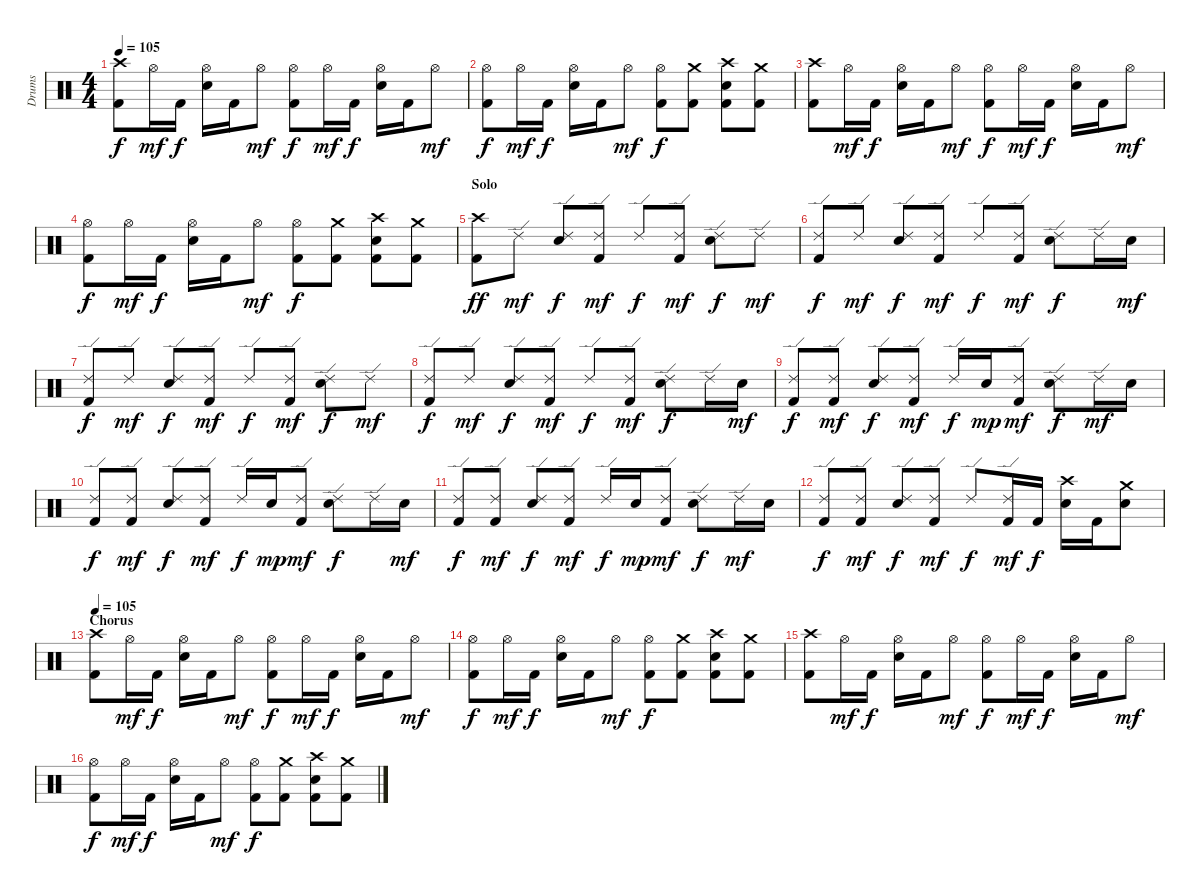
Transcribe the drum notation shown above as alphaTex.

\track ("Drums" "Drums") {instrument percussion}
\staff {score}
\articulation defaults
\ts (4 4)
\tempo 105
\clef neutral
\ks c
("Crash high (hit)" "Kick (hit) 2").8{dy f} "Hi-Hat (open)".16{dy mf} "Kick (hit) 2".16{dy f} ("Hi-Hat (open)" "Snare (hit) 2").16 "Kick (hit) 2".16 "Hi-Hat (open)".8{dy mf} ("Hi-Hat (open)" "Kick (hit) 2").8{dy f} "Hi-Hat (open)".16{dy mf} "Kick (hit) 2".16{dy f} ("Hi-Hat (open)" "Snare (hit) 2").16 "Kick (hit) 2".16 "Hi-Hat (open)".8{dy mf} |
("Hi-Hat (open)" "Kick (hit) 2").8{dy f} "Hi-Hat (open)".16{dy mf} "Kick (hit) 2".16{dy f} ("Hi-Hat (open)" "Snare (hit) 2").16 "Kick (hit) 2".16 "Hi-Hat (open)".8{dy mf} ("Hi-Hat (open)" "Kick (hit) 2").8{dy f} ("Crash medium (hit)" "Kick (hit) 2").8 ("Crash high (hit)" "Snare (hit) 2" "Kick (hit) 2").8 ("Crash medium (hit)" "Kick (hit) 2").8 |
("Crash high (hit)" "Kick (hit) 2").8 "Hi-Hat (open)".16{dy mf} "Kick (hit) 2".16{dy f} ("Hi-Hat (open)" "Snare (hit) 2").16 "Kick (hit) 2".16 "Hi-Hat (open)".8{dy mf} ("Hi-Hat (open)" "Kick (hit) 2").8{dy f} "Hi-Hat (open)".16{dy mf} "Kick (hit) 2".16{dy f} ("Hi-Hat (open)" "Snare (hit) 2").16 "Kick (hit) 2".16 "Hi-Hat (open)".8{dy mf} |
("Hi-Hat (open)" "Kick (hit) 2").8{dy f} "Hi-Hat (open)".16{dy mf} "Kick (hit) 2".16{dy f} ("Hi-Hat (open)" "Snare (hit) 2").16 "Kick (hit) 2".16 "Hi-Hat (open)".8{dy mf} ("Hi-Hat (open)" "Kick (hit) 2").8{dy f} ("Crash medium (hit)" "Kick (hit) 2").8 ("Crash high (hit)" "Snare (hit) 2" "Kick (hit) 2").8 ("Crash medium (hit)" "Kick (hit) 2").8 |
\section ("" "Solo")
("Crash high (hit)" "Kick (hit) 2").8{dy ff volume 11} "Ride (edge) 2".8{dy mf} ("Ride (edge) 2" "Snare (hit) 2").8{dy f} ("Ride (edge) 2" "Kick (hit) 2").8{dy mf} "Ride (edge) 2".8{dy f} ("Ride (edge) 2" "Kick (hit) 2").8{dy mf} ("Ride (edge) 2" "Snare (hit) 2").8{dy f} "Ride (edge) 2".8{dy mf} |
("Ride (edge) 2" "Kick (hit) 2").8{dy f} "Ride (edge) 2".8{dy mf} ("Ride (edge) 2" "Snare (hit) 2").8{dy f} ("Ride (edge) 2" "Kick (hit) 2").8{dy mf} "Ride (edge) 2".8{dy f} ("Ride (edge) 2" "Kick (hit) 2").8{dy mf} ("Ride (edge) 2" "Snare (hit) 2").8{dy f} "Ride (edge) 2".16 "Snare (hit) 2".16{dy mf} |
("Ride (edge) 2" "Kick (hit) 2").8{dy f} "Ride (edge) 2".8{dy mf} ("Ride (edge) 2" "Snare (hit) 2").8{dy f} ("Ride (edge) 2" "Kick (hit) 2").8{dy mf} "Ride (edge) 2".8{dy f} ("Ride (edge) 2" "Kick (hit) 2").8{dy mf} ("Ride (edge) 2" "Snare (hit) 2").8{dy f} "Ride (edge) 2".8{dy mf} |
("Ride (edge) 2" "Kick (hit) 2").8{dy f} "Ride (edge) 2".8{dy mf} ("Ride (edge) 2" "Snare (hit) 2").8{dy f} ("Ride (edge) 2" "Kick (hit) 2").8{dy mf} "Ride (edge) 2".8{dy f} ("Ride (edge) 2" "Kick (hit) 2").8{dy mf} ("Ride (edge) 2" "Snare (hit) 2").8{dy f} "Ride (edge) 2".16 "Snare (hit) 2".16{dy mf} |
("Ride (edge) 2" "Kick (hit) 2").8{dy f} ("Ride (edge) 2" "Kick (hit) 2").8{dy mf} ("Ride (edge) 2" "Snare (hit) 2").8{dy f} ("Ride (edge) 2" "Kick (hit) 2").8{dy mf} "Ride (edge) 2".16{dy f} "Snare (hit) 2".16{dy mp} ("Ride (edge) 2" "Kick (hit) 2").8{dy mf} ("Ride (edge) 2" "Snare (hit) 2").8{dy f} "Ride (edge) 2".16{dy mf} "Snare (hit) 2".16 |
("Ride (edge) 2" "Kick (hit) 2").8{dy f} ("Ride (edge) 2" "Kick (hit) 2").8{dy mf} ("Ride (edge) 2" "Snare (hit) 2").8{dy f} ("Ride (edge) 2" "Kick (hit) 2").8{dy mf} "Ride (edge) 2".16{dy f} "Snare (hit) 2".16{dy mp} ("Ride (edge) 2" "Kick (hit) 2").8{dy mf} ("Ride (edge) 2" "Snare (hit) 2").8{dy f} "Ride (edge) 2".16 "Snare (hit) 2".16{dy mf} |
("Ride (edge) 2" "Kick (hit) 2").8{dy f} ("Ride (edge) 2" "Kick (hit) 2").8{dy mf} ("Ride (edge) 2" "Snare (hit) 2").8{dy f} ("Ride (edge) 2" "Kick (hit) 2").8{dy mf} "Ride (edge) 2".16{dy f} "Snare (hit) 2".16{dy mp} ("Ride (edge) 2" "Kick (hit) 2").8{dy mf} ("Ride (edge) 2" "Snare (hit) 2").8{dy f} "Ride (edge) 2".16{dy mf} "Snare (hit) 2".16 |
("Ride (edge) 2" "Kick (hit) 2").8{dy f} ("Ride (edge) 2" "Kick (hit) 2").8{dy mf} ("Ride (edge) 2" "Snare (hit) 2").8{dy f} ("Ride (edge) 2" "Kick (hit) 2").8{dy mf} "Ride (edge) 2".8{dy f} ("Ride (edge) 2" "Kick (hit) 2").16{dy mf} "Kick (hit) 2".16{dy f} ("Crash high (hit)" "Snare (hit) 2").16 "Kick (hit) 2".16 ("Crash medium (hit)" "Snare (hit) 2").8 |
\section ("" "Chorus")
\tempo 105
("Crash high (hit)" "Kick (hit) 2").8 "Hi-Hat (open)".16{dy mf} "Kick (hit) 2".16{dy f} ("Hi-Hat (open)" "Snare (hit) 2").16 "Kick (hit) 2".16 "Hi-Hat (open)".8{dy mf} ("Hi-Hat (open)" "Kick (hit) 2").8{dy f} "Hi-Hat (open)".16{dy mf} "Kick (hit) 2".16{dy f} ("Hi-Hat (open)" "Snare (hit) 2").16 "Kick (hit) 2".16 "Hi-Hat (open)".8{dy mf} |
("Hi-Hat (open)" "Kick (hit) 2").8{dy f} "Hi-Hat (open)".16{dy mf} "Kick (hit) 2".16{dy f} ("Hi-Hat (open)" "Snare (hit) 2").16 "Kick (hit) 2".16 "Hi-Hat (open)".8{dy mf} ("Hi-Hat (open)" "Kick (hit) 2").8{dy f} ("Crash medium (hit)" "Kick (hit) 2").8 ("Crash high (hit)" "Snare (hit) 2" "Kick (hit) 2").8 ("Crash medium (hit)" "Kick (hit) 2").8 |
("Crash high (hit)" "Kick (hit) 2").8 "Hi-Hat (open)".16{dy mf} "Kick (hit) 2".16{dy f} ("Hi-Hat (open)" "Snare (hit) 2").16 "Kick (hit) 2".16 "Hi-Hat (open)".8{dy mf} ("Hi-Hat (open)" "Kick (hit) 2").8{dy f} "Hi-Hat (open)".16{dy mf} "Kick (hit) 2".16{dy f} ("Hi-Hat (open)" "Snare (hit) 2").16 "Kick (hit) 2".16 "Hi-Hat (open)".8{dy mf} |
("Hi-Hat (open)" "Kick (hit) 2").8{dy f} "Hi-Hat (open)".16{dy mf} "Kick (hit) 2".16{dy f} ("Hi-Hat (open)" "Snare (hit) 2").16 "Kick (hit) 2".16 "Hi-Hat (open)".8{dy mf} ("Hi-Hat (open)" "Kick (hit) 2").8{dy f} ("Crash medium (hit)" "Kick (hit) 2").8 ("Crash high (hit)" "Snare (hit) 2" "Kick (hit) 2").8 ("Crash medium (hit)" "Kick (hit) 2").8
